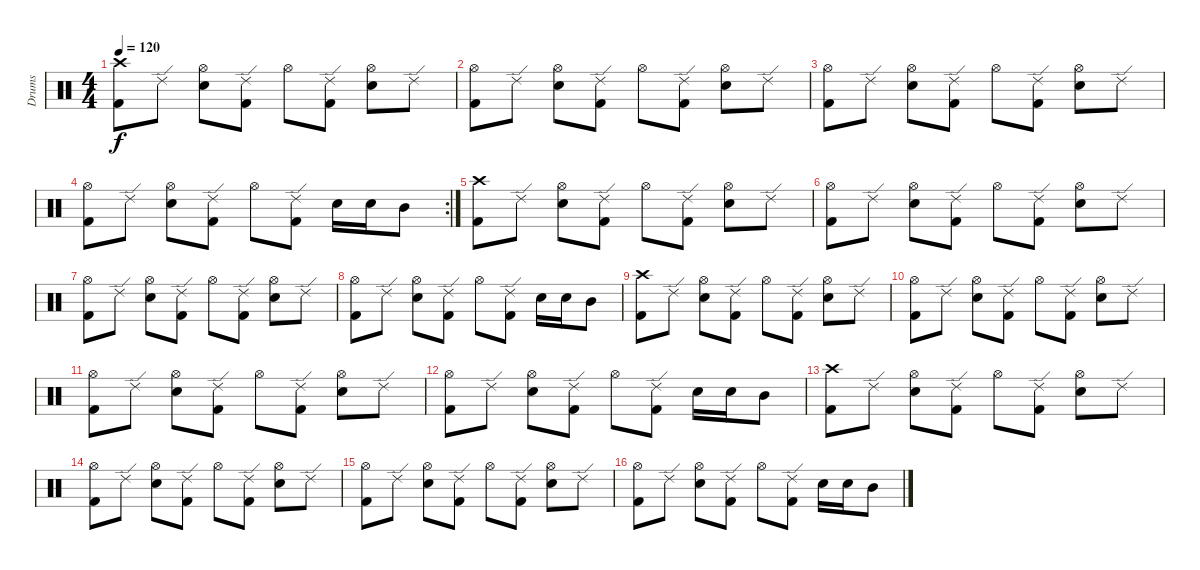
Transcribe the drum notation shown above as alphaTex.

\track ("Drums" "Drums") {instrument percussion}
\staff {score}
\articulation defaults
\ts (4 4)
\tempo 120
\clef neutral
\ks c
("Crash high (hit)" "Kick (hit) 2").8{dy f} "Ride (edge) 2".8 ("Hi-Hat (open)" "Electric Snare (hit)").8 ("Ride (edge) 2" "Kick (hit) 2").8 "Hi-Hat (open)".8 ("Ride (edge) 2" "Kick (hit) 2").8 ("Hi-Hat (open)" "Electric Snare (hit)").8 "Ride (edge) 2".8 |
("Hi-Hat (open)" "Kick (hit) 2").8 "Ride (edge) 2".8 ("Hi-Hat (open)" "Electric Snare (hit)").8 ("Ride (edge) 2" "Kick (hit) 2").8 "Hi-Hat (open)".8 ("Ride (edge) 2" "Kick (hit) 2").8 ("Hi-Hat (open)" "Electric Snare (hit)").8 "Ride (edge) 2".8 |
("Hi-Hat (open)" "Kick (hit) 2").8 "Ride (edge) 2".8 ("Hi-Hat (open)" "Electric Snare (hit)").8 ("Ride (edge) 2" "Kick (hit) 2").8 "Hi-Hat (open)".8 ("Ride (edge) 2" "Kick (hit) 2").8 ("Hi-Hat (open)" "Electric Snare (hit)").8 "Ride (edge) 2".8 |
\rc 2
("Hi-Hat (open)" "Kick (hit) 2").8 "Ride (edge) 2".8 ("Hi-Hat (open)" "Electric Snare (hit)").8 ("Ride (edge) 2" "Kick (hit) 2").8 "Hi-Hat (open)".8 ("Ride (edge) 2" "Kick (hit) 2").8 "Electric Snare (hit)".16 "Electric Snare (hit)".16 "Mid Tom (hit)".8 |
("Crash high (hit)" "Kick (hit) 2").8 "Ride (edge) 2".8 ("Hi-Hat (open)" "Electric Snare (hit)").8 ("Ride (edge) 2" "Kick (hit) 2").8 "Hi-Hat (open)".8 ("Ride (edge) 2" "Kick (hit) 2").8 ("Hi-Hat (open)" "Electric Snare (hit)").8 "Ride (edge) 2".8 |
("Hi-Hat (open)" "Kick (hit) 2").8 "Ride (edge) 2".8 ("Hi-Hat (open)" "Electric Snare (hit)").8 ("Ride (edge) 2" "Kick (hit) 2").8 "Hi-Hat (open)".8 ("Ride (edge) 2" "Kick (hit) 2").8 ("Hi-Hat (open)" "Electric Snare (hit)").8 "Ride (edge) 2".8 |
("Hi-Hat (open)" "Kick (hit) 2").8 "Ride (edge) 2".8 ("Hi-Hat (open)" "Electric Snare (hit)").8 ("Ride (edge) 2" "Kick (hit) 2").8 "Hi-Hat (open)".8 ("Ride (edge) 2" "Kick (hit) 2").8 ("Hi-Hat (open)" "Electric Snare (hit)").8 "Ride (edge) 2".8 |
("Hi-Hat (open)" "Kick (hit) 2").8 "Ride (edge) 2".8 ("Hi-Hat (open)" "Electric Snare (hit)").8 ("Ride (edge) 2" "Kick (hit) 2").8 "Hi-Hat (open)".8 ("Ride (edge) 2" "Kick (hit) 2").8 "Electric Snare (hit)".16 "Electric Snare (hit)".16 "Mid Tom (hit)".8 |
("Crash high (hit)" "Kick (hit) 2").8 "Ride (edge) 2".8 ("Hi-Hat (open)" "Electric Snare (hit)").8 ("Ride (edge) 2" "Kick (hit) 2").8 "Hi-Hat (open)".8 ("Ride (edge) 2" "Kick (hit) 2").8 ("Hi-Hat (open)" "Electric Snare (hit)").8 "Ride (edge) 2".8 |
("Hi-Hat (open)" "Kick (hit) 2").8 "Ride (edge) 2".8 ("Hi-Hat (open)" "Electric Snare (hit)").8 ("Ride (edge) 2" "Kick (hit) 2").8 "Hi-Hat (open)".8 ("Ride (edge) 2" "Kick (hit) 2").8 ("Hi-Hat (open)" "Electric Snare (hit)").8 "Ride (edge) 2".8 |
("Hi-Hat (open)" "Kick (hit) 2").8 "Ride (edge) 2".8 ("Hi-Hat (open)" "Electric Snare (hit)").8 ("Ride (edge) 2" "Kick (hit) 2").8 "Hi-Hat (open)".8 ("Ride (edge) 2" "Kick (hit) 2").8 ("Hi-Hat (open)" "Electric Snare (hit)").8 "Ride (edge) 2".8 |
("Hi-Hat (open)" "Kick (hit) 2").8 "Ride (edge) 2".8 ("Hi-Hat (open)" "Electric Snare (hit)").8 ("Ride (edge) 2" "Kick (hit) 2").8 "Hi-Hat (open)".8 ("Ride (edge) 2" "Kick (hit) 2").8 "Electric Snare (hit)".16 "Electric Snare (hit)".16 "Mid Tom (hit)".8 |
("Crash high (hit)" "Kick (hit) 2").8 "Ride (edge) 2".8 ("Hi-Hat (open)" "Electric Snare (hit)").8 ("Ride (edge) 2" "Kick (hit) 2").8 "Hi-Hat (open)".8 ("Ride (edge) 2" "Kick (hit) 2").8 ("Hi-Hat (open)" "Electric Snare (hit)").8 "Ride (edge) 2".8 |
("Hi-Hat (open)" "Kick (hit) 2").8 "Ride (edge) 2".8 ("Hi-Hat (open)" "Electric Snare (hit)").8 ("Ride (edge) 2" "Kick (hit) 2").8 "Hi-Hat (open)".8 ("Ride (edge) 2" "Kick (hit) 2").8 ("Hi-Hat (open)" "Electric Snare (hit)").8 "Ride (edge) 2".8 |
("Hi-Hat (open)" "Kick (hit) 2").8 "Ride (edge) 2".8 ("Hi-Hat (open)" "Electric Snare (hit)").8 ("Ride (edge) 2" "Kick (hit) 2").8 "Hi-Hat (open)".8 ("Ride (edge) 2" "Kick (hit) 2").8 ("Hi-Hat (open)" "Electric Snare (hit)").8 "Ride (edge) 2".8 |
("Hi-Hat (open)" "Kick (hit) 2").8 "Ride (edge) 2".8 ("Hi-Hat (open)" "Electric Snare (hit)").8 ("Ride (edge) 2" "Kick (hit) 2").8 "Hi-Hat (open)".8 ("Ride (edge) 2" "Kick (hit) 2").8 "Electric Snare (hit)".16 "Electric Snare (hit)".16 "Mid Tom (hit)".8
